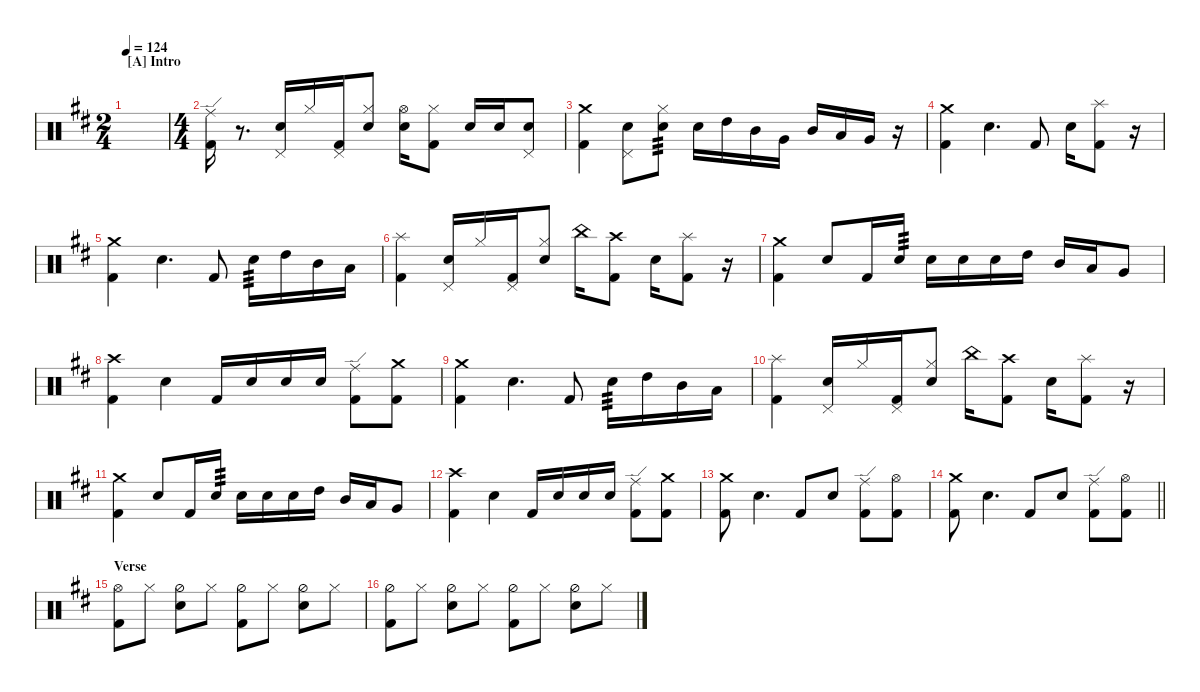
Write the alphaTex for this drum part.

\hideDynamics
\bracketExtendMode nobrackets
\singleTrackTrackNamePolicy hidden
\multiTrackTrackNamePolicy hidden
\otherSystemsTrackNameOrientation horizontal
\track ("Drumkit" "Drums") {instrument percussion}
\staff {score}
\articulation defaults
\ts (2 4)
\section ("A" "Intro")
\scale
0.283258
\tempo 124
\accidentals auto
\clef neutral
\ottava regular
\simile none
\ks bminor
|
\ts (4 4)
\scale
0.238914 ("Kick (hit) 2"{acc forcenatural} "Ride (edge)"{acc forcenatural}).16{beam Down} r.8{d beam Down} ("Snare (hit) 2"{acc forcenatural} "Pedal Hi-Hat (hit)"{acc forcenatural}).16{beam Up} "Hi-Hat (closed)"{acc forcenatural}.16{beam Up} ("Kick (hit) 2"{acc forcenatural} "Pedal Hi-Hat (hit)"{acc forcenatural}).16{beam Up} ("Snare (hit) 2"{acc forcenatural} "Hi-Hat (closed)"{acc forcenatural}).8{beam Up} ("Snare (hit) 2"{acc forcenatural} "Hi-Hat (open)"{acc forcenatural}).16{beam Down} ("Kick (hit) 2"{acc forcenatural} "Hi-Hat (closed)"{acc forcenatural}).8{beam Down} "Snare (hit) 2"{acc forcenatural}.16{beam Up} "Snare (hit) 2"{acc forcenatural}.16{beam Up} ("Snare (hit) 2"{acc forcenatural} "Pedal Hi-Hat (hit)"{acc forcenatural}).8{dy mf beam Up} |
\scale
0.238914 ("Crash medium (hit)"{acc forcenatural} "Kick (hit) 2"{acc forcenatural}).4{dy f beam Down} ("Snare (hit) 2"{acc forcenatural} "Pedal Hi-Hat (hit)"{acc forcenatural}).8{beam Down} ("Snare (hit) 2"{acc forcenatural} "Hi-Hat (closed)"{acc forcenatural}).8{tp 3 dy mf beam Down} "Snare (hit) 2"{acc forcenatural}.16{dy f beam Down} "High Tom (hit)"{acc forcenatural}.16{beam Down} "Mid Tom (hit)"{acc forcenatural}.16{beam Down} "Very Low Tom (hit)"{acc forcenatural}.16{beam Down} "Mid Tom (hit)"{acc forcenatural}.16{beam Up} "Low Tom (hit)"{acc forcenatural}.16{beam Up} "Very Low Tom (hit)"{acc forcenatural}.16{beam Up} r.16{beam Up} |
\scale
0.238914 ("Crash medium (hit)"{acc forcenatural} "Kick (hit) 2"{acc forcenatural}).4{beam Down} "Snare (hit) 2"{acc forcenatural}.4{d beam Down} "Kick (hit) 2"{acc forcenatural}.8{beam Up} "Snare (hit) 2"{acc forcenatural}.16{beam Down} ("Kick (hit) 2"{acc forcenatural} "Splash (hit)"{acc forcenatural}).8{beam Down} r.16{beam Down} |
\scale
0.275 ("Kick (hit) 2"{acc forcenatural} "Crash medium (hit)"{acc forcenatural}).4{beam Down} "Snare (hit) 2"{acc forcenatural}.4{d beam Down} "Kick (hit) 2"{acc forcenatural}.8{beam Up} "Snare (hit) 2"{acc forcenatural}.16{tp 3 dy mf beam Down} "High Tom (hit)"{acc forcenatural}.16{dy f beam Down} "Mid Tom (hit)"{acc forcenatural}.16{beam Down} "Low Tom (hit)"{acc forcenatural}.16{beam Down} |
\scale
0.275 ("Kick (hit) 2"{acc forcenatural} "Splash (hit)"{acc forcenatural}).4{beam Down} ("Snare (hit) 2"{acc forcenatural} "Pedal Hi-Hat (hit)"{acc forcenatural}).16{beam Up} "Hi-Hat (closed)"{acc forcenatural}.16{beam Up} ("Kick (hit) 2"{acc forcenatural} "Pedal Hi-Hat (hit)"{acc forcenatural}).16{beam Up} ("Snare (hit) 2"{acc forcenatural} "Hi-Hat (closed)"{acc forcenatural}).8{beam Up} "China (hit)"{acc forcenatural}.16{beam Down} ("Kick (hit) 2"{acc forcenatural} "Crash high (hit)"{acc forcenatural}).8{beam Down} "Snare (hit) 2"{acc forcenatural}.16{beam Down} ("Kick (hit) 2"{acc forcenatural} "Splash (hit)"{acc forcenatural}).8{beam Down} r.16{beam Down} |
\scale
0.175 ("Kick (hit) 2"{acc forcenatural} "Crash medium (hit)"{acc forcenatural}).4{beam Down} "Snare (hit) 2"{acc forcenatural}.8{beam Up} "Kick (hit) 2"{acc forcenatural}.16{beam Up} "Snare (hit) 2"{acc forcenatural}.16{tp 3 dy mf beam Up} "Snare (hit) 2"{acc forcenatural}.16{dy f beam Down} "Snare (hit) 2"{acc forcenatural}.16{beam Down} "Snare (hit) 2"{acc forcenatural}.16{beam Down} "High Tom (hit)"{acc forcenatural}.16{beam Down} "Mid Tom (hit)"{acc forcenatural}.16{beam Up} "Low Tom (hit)"{acc forcenatural}.16{beam Up} "Very Low Tom (hit)"{acc forcenatural}.8{beam Up} |
\scale
0.275 ("Kick (hit) 2"{acc forcenatural} "Crash high (hit)"{acc forcenatural}).4{beam Down} "Snare (hit) 2"{acc forcenatural}.4{beam Down} "Kick (hit) 2"{acc forcenatural}.16{beam Up} "Snare (hit) 2"{acc forcenatural}.16{beam Up} "Snare (hit) 2"{acc forcenatural}.16{beam Up} "Snare (hit) 2"{acc forcenatural}.16{beam Up} ("Kick (hit) 2"{acc forcenatural} "Ride (edge)"{acc forcenatural}).8{beam Down} ("Kick (hit) 2"{acc forcenatural} "Crash medium (hit)"{acc forcenatural}).8{beam Down} |
\scale
0.25 ("Kick (hit) 2"{acc forcenatural} "Crash medium (hit)"{acc forcenatural}).4{beam Down} "Snare (hit) 2"{acc forcenatural}.4{d beam Down} "Kick (hit) 2"{acc forcenatural}.8{beam Up} "Snare (hit) 2"{acc forcenatural}.16{tp 3 dy mf beam Down} "High Tom (hit)"{acc forcenatural}.16{dy f beam Down} "Mid Tom (hit)"{acc forcenatural}.16{beam Down} "Low Tom (hit)"{acc forcenatural}.16{beam Down} |
\scale
0.25 ("Kick (hit) 2"{acc forcenatural} "Splash (hit)"{acc forcenatural}).4{beam Down} ("Snare (hit) 2"{acc forcenatural} "Pedal Hi-Hat (hit)"{acc forcenatural}).16{beam Up} "Hi-Hat (closed)"{acc forcenatural}.16{beam Up} ("Kick (hit) 2"{acc forcenatural} "Pedal Hi-Hat (hit)"{acc forcenatural}).16{beam Up} ("Snare (hit) 2"{acc forcenatural} "Hi-Hat (closed)"{acc forcenatural}).8{beam Up} "China (hit)"{acc forcenatural}.16{beam Down} ("Kick (hit) 2"{acc forcenatural} "Crash high (hit)"{acc forcenatural}).8{beam Down} "Snare (hit) 2"{acc forcenatural}.16{beam Down} ("Kick (hit) 2"{acc forcenatural} "Splash (hit)"{acc forcenatural}).8{beam Down} r.16{beam Down} |
\scale
0.25 ("Kick (hit) 2"{acc forcenatural} "Crash medium (hit)"{acc forcenatural}).4{beam Down} "Snare (hit) 2"{acc forcenatural}.8{beam Up} "Kick (hit) 2"{acc forcenatural}.16{beam Up} "Snare (hit) 2"{acc forcenatural}.16{tp 3 dy mf beam Up} "Snare (hit) 2"{acc forcenatural}.16{dy f beam Down} "Snare (hit) 2"{acc forcenatural}.16{beam Down} "Snare (hit) 2"{acc forcenatural}.16{beam Down} "High Tom (hit)"{acc forcenatural}.16{beam Down} "Mid Tom (hit)"{acc forcenatural}.16{beam Up} "Low Tom (hit)"{acc forcenatural}.16{beam Up} "Very Low Tom (hit)"{acc forcenatural}.8{beam Up} |
\scale
0.25 ("Kick (hit) 2"{acc forcenatural} "Crash high (hit)"{acc forcenatural}).4{beam Down} "Snare (hit) 2"{acc forcenatural}.4{beam Down} "Kick (hit) 2"{acc forcenatural}.16{beam Up} "Snare (hit) 2"{acc forcenatural}.16{beam Up} "Snare (hit) 2"{acc forcenatural}.16{beam Up} "Snare (hit) 2"{acc forcenatural}.16{beam Up} ("Kick (hit) 2"{acc forcenatural} "Ride (edge)"{acc forcenatural}).8{beam Down} ("Kick (hit) 2"{acc forcenatural} "Crash medium (hit)"{acc forcenatural}).8{beam Down} |
("Kick (hit) 2"{acc forcenatural} "Crash medium (hit)"{acc forcenatural}).8{beam Down} "Snare (hit) 2"{acc forcenatural}.4{d beam Down} "Kick (hit) 2"{acc forcenatural}.8{beam Up} "Snare (hit) 2"{acc forcenatural}.8{beam Up} ("Kick (hit) 2"{acc forcenatural} "Ride (edge)"{acc forcenatural}).8{beam Down} ("Kick (hit) 2"{acc forcenatural} "Hi-Hat (open)"{acc forcenatural}).8{beam Down} |
\barLineRight lightlight
("Kick (hit) 2"{acc forcenatural} "Crash medium (hit)"{acc forcenatural}).8{beam Down} "Snare (hit) 2"{acc forcenatural}.4{d beam Down} "Kick (hit) 2"{acc forcenatural}.8{beam Up} "Snare (hit) 2"{acc forcenatural}.8{beam Up} ("Kick (hit) 2"{acc forcenatural} "Ride (edge)"{acc forcenatural}).8{beam Down} ("Kick (hit) 2"{acc forcenatural} "Hi-Hat (open)"{acc forcenatural}).8{beam Down} |
\section ("" "Verse")
("Kick (hit) 2"{acc forcenatural} "Hi-Hat (open)"{acc forcenatural}).8{beam Down} "Hi-Hat (closed)"{acc forcenatural}.8{beam Down} ("Hi-Hat (half)"{acc forcenatural} "Snare (hit) 2"{acc forcenatural}).8{beam Down} "Hi-Hat (closed)"{acc forcenatural}.8{beam Down} ("Hi-Hat (half)"{acc forcenatural} "Kick (hit) 2"{acc forcenatural}).8{beam Down} "Hi-Hat (closed)"{acc forcenatural}.8{beam Down} ("Hi-Hat (half)"{acc forcenatural} "Snare (hit) 2"{acc forcenatural}).8{beam Down} "Hi-Hat (closed)"{acc forcenatural}.8{beam Down} |
("Kick (hit) 2"{acc forcenatural} "Hi-Hat (half)"{acc forcenatural}).8{beam Down} "Hi-Hat (closed)"{acc forcenatural}.8{beam Down} ("Hi-Hat (half)"{acc forcenatural} "Snare (hit) 2"{acc forcenatural}).8{beam Down} "Hi-Hat (closed)"{acc forcenatural}.8{beam Down} ("Hi-Hat (half)"{acc forcenatural} "Kick (hit) 2"{acc forcenatural}).8{beam Down} "Hi-Hat (closed)"{acc forcenatural}.8{beam Down} ("Hi-Hat (half)"{acc forcenatural} "Snare (hit) 2"{acc forcenatural}).8{beam Down} "Hi-Hat (closed)"{acc forcenatural}.8{beam Down}
